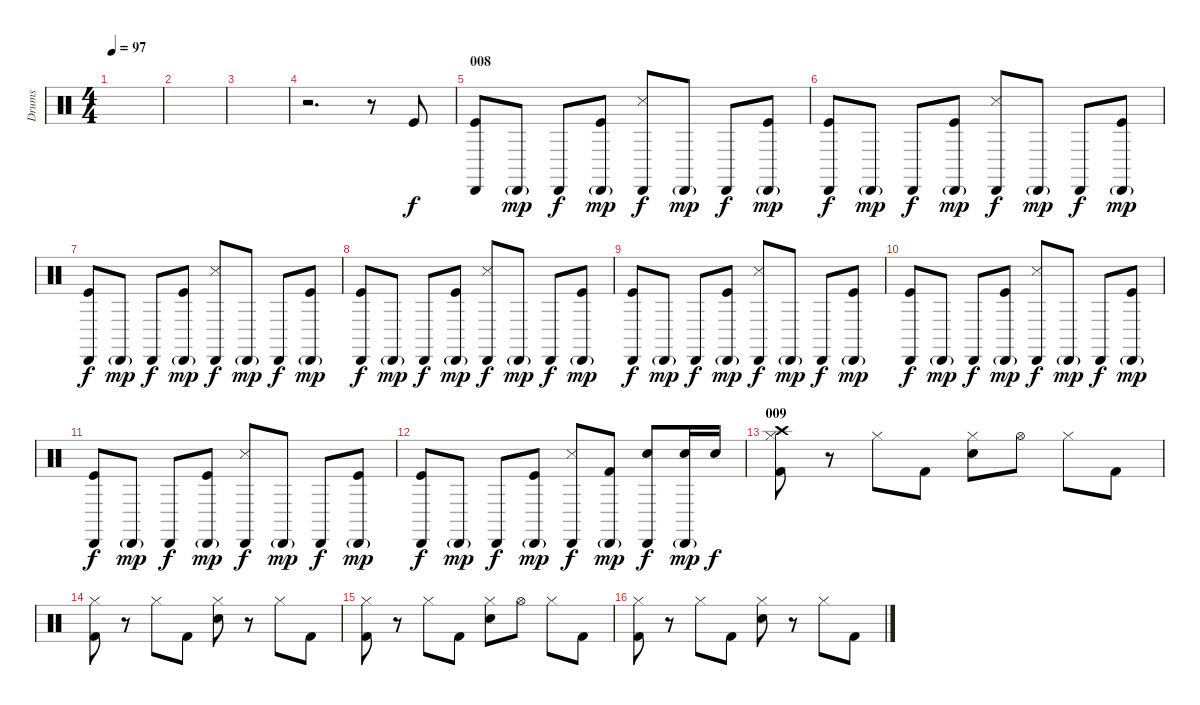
\track ("Drums" "Drums") {instrument percussion}
\staff {score}
\articulation defaults
\ts (4 4)
\tempo 97
\clef neutral
\ks c
|
|
|
r.2{d} r.8 "Kick (hit)".8 |
\section ("" "008")
("Kick (hit)" "Cabasa (hit)").8 "Cabasa (hit)"{g}.8{dy mp} "Cabasa (hit)".8{dy f} ("Kick (hit)" "Cabasa (hit)"{g}).8{dy mp} ("Snare (side stick) 3" "Cabasa (hit)").8{dy f} "Cabasa (hit)"{g}.8{dy mp} "Cabasa (hit)".8{dy f} ("Kick (hit)" "Cabasa (hit)"{g}).8{dy mp} |
("Kick (hit)" "Cabasa (hit)").8{dy f} "Cabasa (hit)"{g}.8{dy mp} "Cabasa (hit)".8{dy f} ("Kick (hit)" "Cabasa (hit)"{g}).8{dy mp} ("Snare (side stick) 3" "Cabasa (hit)").8{dy f} "Cabasa (hit)"{g}.8{dy mp} "Cabasa (hit)".8{dy f} ("Kick (hit)" "Cabasa (hit)"{g}).8{dy mp} |
("Kick (hit)" "Cabasa (hit)").8{dy f} "Cabasa (hit)"{g}.8{dy mp} "Cabasa (hit)".8{dy f} ("Kick (hit)" "Cabasa (hit)"{g}).8{dy mp} ("Snare (side stick) 3" "Cabasa (hit)").8{dy f} "Cabasa (hit)"{g}.8{dy mp} "Cabasa (hit)".8{dy f} ("Kick (hit)" "Cabasa (hit)"{g}).8{dy mp} |
("Kick (hit)" "Cabasa (hit)").8{dy f} "Cabasa (hit)"{g}.8{dy mp} "Cabasa (hit)".8{dy f} ("Kick (hit)" "Cabasa (hit)"{g}).8{dy mp} ("Snare (side stick) 3" "Cabasa (hit)").8{dy f} "Cabasa (hit)"{g}.8{dy mp} "Cabasa (hit)".8{dy f} ("Kick (hit)" "Cabasa (hit)"{g}).8{dy mp} |
("Kick (hit)" "Cabasa (hit)").8{dy f} "Cabasa (hit)"{g}.8{dy mp} "Cabasa (hit)".8{dy f} ("Kick (hit)" "Cabasa (hit)"{g}).8{dy mp} ("Snare (side stick) 3" "Cabasa (hit)").8{dy f} "Cabasa (hit)"{g}.8{dy mp} "Cabasa (hit)".8{dy f} ("Kick (hit)" "Cabasa (hit)"{g}).8{dy mp} |
("Kick (hit)" "Cabasa (hit)").8{dy f} "Cabasa (hit)"{g}.8{dy mp} "Cabasa (hit)".8{dy f} ("Kick (hit)" "Cabasa (hit)"{g}).8{dy mp} ("Snare (side stick) 3" "Cabasa (hit)").8{dy f} "Cabasa (hit)"{g}.8{dy mp} "Cabasa (hit)".8{dy f} ("Kick (hit)" "Cabasa (hit)"{g}).8{dy mp} |
("Kick (hit)" "Cabasa (hit)").8{dy f} "Cabasa (hit)"{g}.8{dy mp} "Cabasa (hit)".8{dy f} ("Kick (hit)" "Cabasa (hit)"{g}).8{dy mp} ("Snare (side stick) 3" "Cabasa (hit)").8{dy f} "Cabasa (hit)"{g}.8{dy mp} "Cabasa (hit)".8{dy f} ("Kick (hit)" "Cabasa (hit)"{g}).8{dy mp} |
("Kick (hit)" "Cabasa (hit)").8{dy f} "Cabasa (hit)"{g}.8{dy mp} "Cabasa (hit)".8{dy f} ("Kick (hit)" "Cabasa (hit)"{g}).8{dy mp} ("Snare (side stick) 3" "Cabasa (hit)").8{dy f} ("Kick (hit) 2" "Cabasa (hit)"{g}).8{dy mp} ("Electric Snare (hit)" "Cabasa (hit)").8{dy f} ("Electric Snare (hit)" "Cabasa (hit)"{g}).16{dy mp} "Electric Snare (hit)".16{dy f} |
\section ("" "009")
("Kick (hit) 2" "Crash high (hit)" "Hi-Hat (closed)").8 r.8 "Hi-Hat (closed)".8 "Kick (hit) 2".8 ("Electric Snare (hit)" "Hi-Hat (closed)").8 "Hi-Hat (open)".8 "Hi-Hat (closed)".8 "Kick (hit) 2".8 |
("Kick (hit) 2" "Hi-Hat (closed)").8 r.8 "Hi-Hat (closed)".8 "Kick (hit) 2".8 ("Electric Snare (hit)" "Hi-Hat (closed)").8 r.8 "Hi-Hat (closed)".8 "Kick (hit) 2".8 |
("Kick (hit) 2" "Hi-Hat (closed)").8 r.8 "Hi-Hat (closed)".8 "Kick (hit) 2".8 ("Electric Snare (hit)" "Hi-Hat (closed)").8 "Hi-Hat (open)".8 "Hi-Hat (closed)".8 "Kick (hit) 2".8 |
("Kick (hit) 2" "Hi-Hat (closed)").8 r.8 "Hi-Hat (closed)".8 "Kick (hit) 2".8 ("Electric Snare (hit)" "Hi-Hat (closed)").8 r.8 "Hi-Hat (closed)".8 "Kick (hit) 2".8
